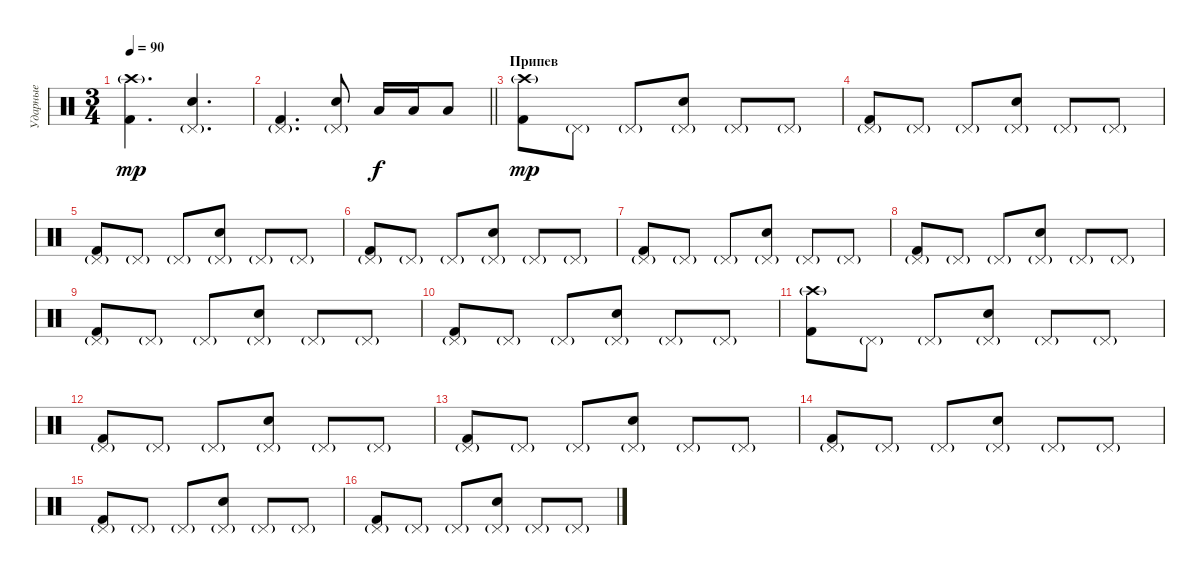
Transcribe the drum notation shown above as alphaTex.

\track ("Ударные" "Ударные") {instrument percussion}
\staff {score}
\articulation defaults
\ts (3 4)
\tempo 90
\clef neutral
\ks c
("Kick (hit) 2" "Crash high (hit)"{g}).4{d dy mp} ("Electric Snare (hit)" "Pedal Hi-Hat (hit)"{g}).4{d} |
\barLineRight lightlight
("Kick (hit) 2" "Pedal Hi-Hat (hit)"{g}).4{d} ("Electric Snare (hit)" "Pedal Hi-Hat (hit)"{g}).8 "Low Tom (hit)".16{dy f} "Low Tom (hit)".16 "Low Tom (hit)".8 |
\section ("" "Припев")
("Kick (hit) 2" "Crash high (hit)"{g}).8{dy mp} "Pedal Hi-Hat (hit)"{g}.8 "Pedal Hi-Hat (hit)"{g}.8 ("Electric Snare (hit)" "Pedal Hi-Hat (hit)"{g}).8 "Pedal Hi-Hat (hit)"{g}.8 "Pedal Hi-Hat (hit)"{g}.8 |
("Kick (hit) 2" "Pedal Hi-Hat (hit)"{g}).8 "Pedal Hi-Hat (hit)"{g}.8 "Pedal Hi-Hat (hit)"{g}.8 ("Electric Snare (hit)" "Pedal Hi-Hat (hit)"{g}).8 "Pedal Hi-Hat (hit)"{g}.8 "Pedal Hi-Hat (hit)"{g}.8 |
("Kick (hit) 2" "Pedal Hi-Hat (hit)"{g}).8 "Pedal Hi-Hat (hit)"{g}.8 "Pedal Hi-Hat (hit)"{g}.8 ("Electric Snare (hit)" "Pedal Hi-Hat (hit)"{g}).8 "Pedal Hi-Hat (hit)"{g}.8 "Pedal Hi-Hat (hit)"{g}.8 |
("Kick (hit) 2" "Pedal Hi-Hat (hit)"{g}).8 "Pedal Hi-Hat (hit)"{g}.8 "Pedal Hi-Hat (hit)"{g}.8 ("Electric Snare (hit)" "Pedal Hi-Hat (hit)"{g}).8 "Pedal Hi-Hat (hit)"{g}.8 "Pedal Hi-Hat (hit)"{g}.8 |
("Kick (hit) 2" "Pedal Hi-Hat (hit)"{g}).8 "Pedal Hi-Hat (hit)"{g}.8 "Pedal Hi-Hat (hit)"{g}.8 ("Electric Snare (hit)" "Pedal Hi-Hat (hit)"{g}).8 "Pedal Hi-Hat (hit)"{g}.8 "Pedal Hi-Hat (hit)"{g}.8 |
("Kick (hit) 2" "Pedal Hi-Hat (hit)"{g}).8 "Pedal Hi-Hat (hit)"{g}.8 "Pedal Hi-Hat (hit)"{g}.8 ("Electric Snare (hit)" "Pedal Hi-Hat (hit)"{g}).8 "Pedal Hi-Hat (hit)"{g}.8 "Pedal Hi-Hat (hit)"{g}.8 |
("Kick (hit) 2" "Pedal Hi-Hat (hit)"{g}).8 "Pedal Hi-Hat (hit)"{g}.8 "Pedal Hi-Hat (hit)"{g}.8 ("Electric Snare (hit)" "Pedal Hi-Hat (hit)"{g}).8 "Pedal Hi-Hat (hit)"{g}.8 "Pedal Hi-Hat (hit)"{g}.8 |
("Kick (hit) 2" "Pedal Hi-Hat (hit)"{g}).8 "Pedal Hi-Hat (hit)"{g}.8 "Pedal Hi-Hat (hit)"{g}.8 ("Electric Snare (hit)" "Pedal Hi-Hat (hit)"{g}).8 "Pedal Hi-Hat (hit)"{g}.8 "Pedal Hi-Hat (hit)"{g}.8 |
("Kick (hit) 2" "Crash high (hit)"{g}).8 "Pedal Hi-Hat (hit)"{g}.8 "Pedal Hi-Hat (hit)"{g}.8 ("Electric Snare (hit)" "Pedal Hi-Hat (hit)"{g}).8 "Pedal Hi-Hat (hit)"{g}.8 "Pedal Hi-Hat (hit)"{g}.8 |
("Kick (hit) 2" "Pedal Hi-Hat (hit)"{g}).8 "Pedal Hi-Hat (hit)"{g}.8 "Pedal Hi-Hat (hit)"{g}.8 ("Electric Snare (hit)" "Pedal Hi-Hat (hit)"{g}).8 "Pedal Hi-Hat (hit)"{g}.8 "Pedal Hi-Hat (hit)"{g}.8 |
("Kick (hit) 2" "Pedal Hi-Hat (hit)"{g}).8 "Pedal Hi-Hat (hit)"{g}.8 "Pedal Hi-Hat (hit)"{g}.8 ("Electric Snare (hit)" "Pedal Hi-Hat (hit)"{g}).8 "Pedal Hi-Hat (hit)"{g}.8 "Pedal Hi-Hat (hit)"{g}.8 |
("Kick (hit) 2" "Pedal Hi-Hat (hit)"{g}).8 "Pedal Hi-Hat (hit)"{g}.8 "Pedal Hi-Hat (hit)"{g}.8 ("Electric Snare (hit)" "Pedal Hi-Hat (hit)"{g}).8 "Pedal Hi-Hat (hit)"{g}.8 "Pedal Hi-Hat (hit)"{g}.8 |
("Kick (hit) 2" "Pedal Hi-Hat (hit)"{g}).8 "Pedal Hi-Hat (hit)"{g}.8 "Pedal Hi-Hat (hit)"{g}.8 ("Electric Snare (hit)" "Pedal Hi-Hat (hit)"{g}).8 "Pedal Hi-Hat (hit)"{g}.8 "Pedal Hi-Hat (hit)"{g}.8 |
("Kick (hit) 2" "Pedal Hi-Hat (hit)"{g}).8 "Pedal Hi-Hat (hit)"{g}.8 "Pedal Hi-Hat (hit)"{g}.8 ("Electric Snare (hit)" "Pedal Hi-Hat (hit)"{g}).8 "Pedal Hi-Hat (hit)"{g}.8 "Pedal Hi-Hat (hit)"{g}.8
